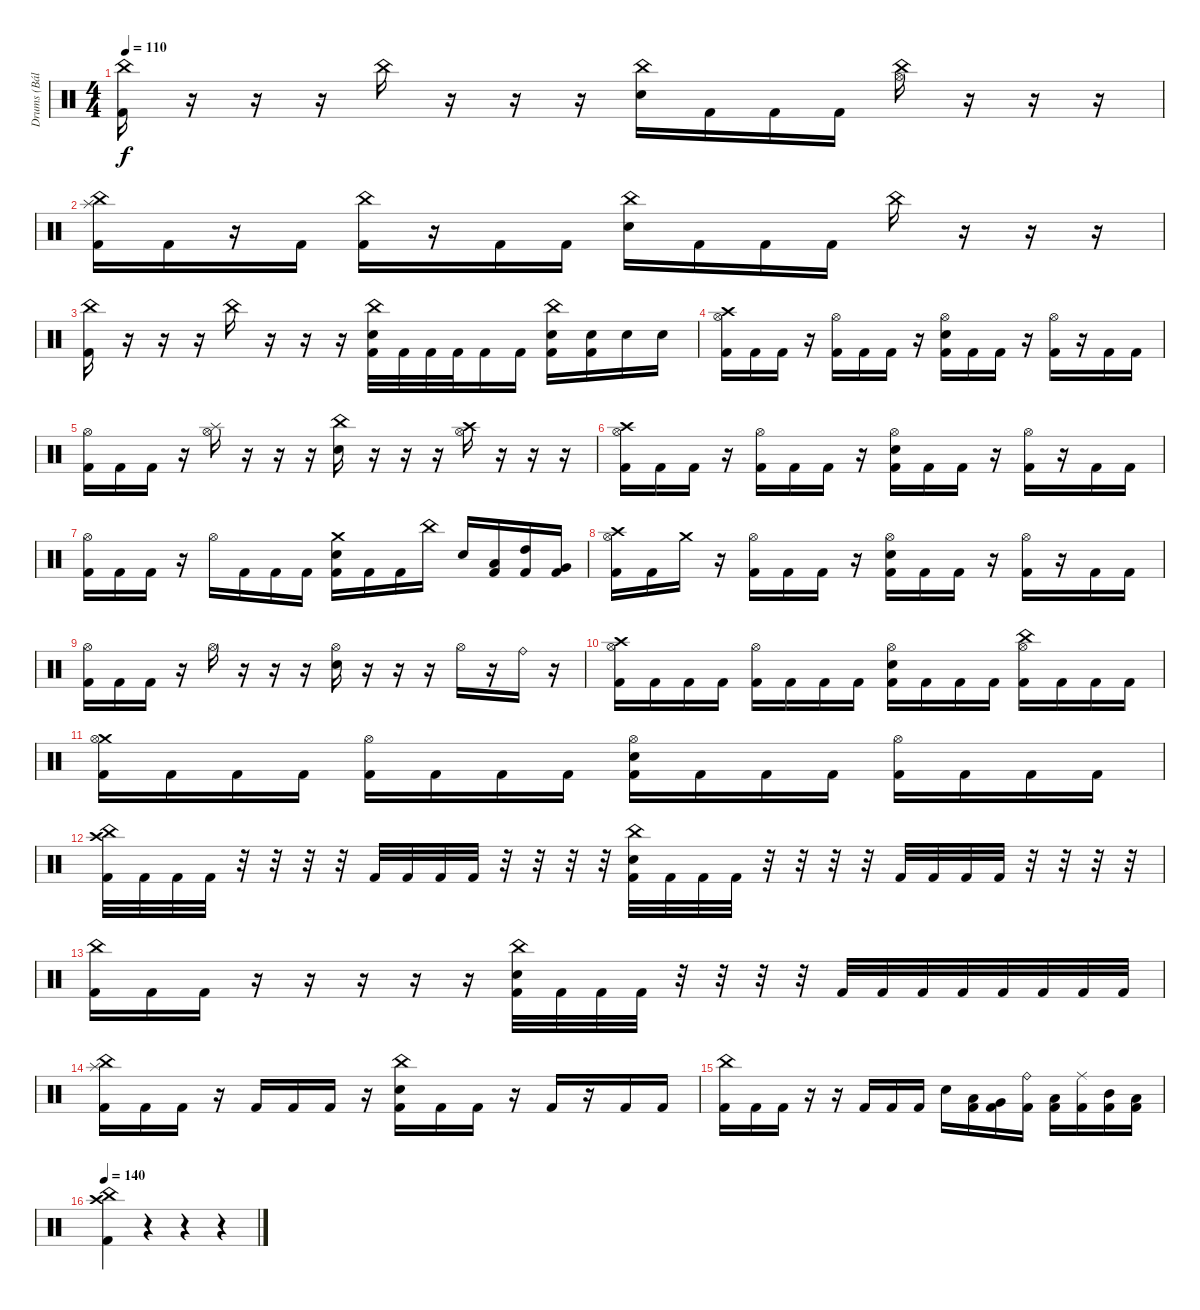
\track ("Drums (Bálint)" "Drums (Bál") {instrument percussion}
\staff {score}
\articulation defaults
\ts (4 4)
\tempo 110
\clef neutral
\ks c
("China (hit)" "Kick (hit) 2").16{dy f} r.16 r.16 r.16 "China (hit)".16 r.16 r.16 r.16 ("China (hit)" "Electric Snare (hit)").16 "Kick (hit) 2".16 "Kick (hit) 2".16 "Kick (hit) 2".16 ("Hi-Hat (open)" "China (hit)").16 r.16 r.16 r.16 |
("Splash (hit)" "China (hit)" "Kick (hit) 2").16 "Kick (hit) 2".16 r.16 "Kick (hit) 2".16 ("China (hit)" "Kick (hit) 2").16 r.16 "Kick (hit) 2".16 "Kick (hit) 2".16 ("China (hit)" "Snare (hit) 2").16 "Kick (hit) 2".16 "Kick (hit) 2".16 "Kick (hit) 2".16 "China (hit)".16 r.16 r.16 r.16 |
("China (hit)" "Kick (hit) 2").16 r.16 r.16 r.16 "China (hit)".16 r.16 r.16 r.16 ("China (hit)" "Electric Snare (hit)" "Kick (hit) 2").32 "Kick (hit) 2".32 "Kick (hit) 2".32 "Kick (hit) 2".32 "Kick (hit) 2".16 "Kick (hit) 2".16 ("China (hit)" "Electric Snare (hit)" "Kick (hit) 2").16 ("Electric Snare (hit)" "Kick (hit) 2").16 "Electric Snare (hit)".16 "Electric Snare (hit)".16 |
("Crash high (hit)" "Hi-Hat (open)" "Kick (hit) 2").16 "Kick (hit) 2".16 "Kick (hit) 2".16 r.16 ("Hi-Hat (open)" "Kick (hit) 2").16 "Kick (hit) 2".16 "Kick (hit) 2".16 r.16 ("Hi-Hat (open)" "Electric Snare (hit)" "Kick (hit) 2").16 "Kick (hit) 2".16 "Kick (hit) 2".16 r.16 ("Hi-Hat (open)" "Kick (hit) 2").16 r.16 "Kick (hit) 2".16 "Kick (hit) 2".16 |
("Hi-Hat (open)" "Kick (hit) 2").16 "Kick (hit) 2".16 "Kick (hit) 2".16 r.16 ("Splash (hit)" "Hi-Hat (open)").16 r.16 r.16 r.16 ("China (hit)" "Electric Snare (hit)").16 r.16 r.16 r.16 ("Crash high (hit)" "Hi-Hat (open)").16 r.16 r.16 r.16 |
("Crash high (hit)" "Hi-Hat (open)" "Kick (hit) 2").16 "Kick (hit) 2".16 "Kick (hit) 2".16 r.16 ("Hi-Hat (open)" "Kick (hit) 2").16 "Kick (hit) 2".16 "Kick (hit) 2".16 r.16 ("Hi-Hat (open)" "Electric Snare (hit)" "Kick (hit) 2").16 "Kick (hit) 2".16 "Kick (hit) 2".16 r.16 ("Hi-Hat (open)" "Kick (hit) 2").16 r.16 "Kick (hit) 2".16 "Kick (hit) 2".16 |
("Hi-Hat (open)" "Kick (hit) 2").16 "Kick (hit) 2".16 "Kick (hit) 2".16 r.16 "Hi-Hat (open)".16 "Kick (hit) 2".16 "Kick (hit) 2".16 "Kick (hit) 2".16 ("Crash medium (hit)" "Electric Snare (hit)" "Kick (hit) 2").16 "Kick (hit) 2".16 "Kick (hit) 2".16 "China (hit)".16 "Electric Snare (hit)".16 ("Low Floor Tom (hit)" "Kick (hit) 2").16 ("High Tom (hit)" "Kick (hit) 2").16 ("Very Low Tom (hit)" "Kick (hit) 2").16 |
("Crash high (hit)" "Hi-Hat (open)" "Kick (hit) 2").16 "Kick (hit) 2".16 "Crash medium (hit)".16 r.16 ("Hi-Hat (open)" "Kick (hit) 2").16 "Kick (hit) 2".16 "Kick (hit) 2".16 r.16 ("Hi-Hat (open)" "Electric Snare (hit)" "Kick (hit) 2").16 "Kick (hit) 2".16 "Kick (hit) 2".16 r.16 ("Hi-Hat (open)" "Kick (hit) 2").16 r.16 "Kick (hit) 2".16 "Kick (hit) 2".16 |
("Hi-Hat (open)" "Kick (hit) 2").16 "Kick (hit) 2".16 "Kick (hit) 2".16 r.16 "Hi-Hat (open)".16 r.16 r.16 r.16 ("Hi-Hat (open)" "Electric Snare (hit)").16 r.16 r.16 r.16 "Hi-Hat (open)".16 r.16 "Ride (bell)".16 r.16 |
("Crash high (hit)" "Hi-Hat (open)" "Kick (hit) 2").16 "Kick (hit) 2".16 "Kick (hit) 2".16 "Kick (hit) 2".16 ("Hi-Hat (open)" "Kick (hit) 2").16 "Kick (hit) 2".16 "Kick (hit) 2".16 "Kick (hit) 2".16 ("Hi-Hat (open)" "Electric Snare (hit)" "Kick (hit) 2").16 "Kick (hit) 2".16 "Kick (hit) 2".16 "Kick (hit) 2".16 ("China (hit)" "Hi-Hat (open)" "Kick (hit) 2").16 "Kick (hit) 2".16 "Kick (hit) 2".16 "Kick (hit) 2".16 |
("Crash medium (hit)" "Hi-Hat (open)" "Kick (hit) 2").16 "Kick (hit) 2".16 "Kick (hit) 2".16 "Kick (hit) 2".16 ("Hi-Hat (open)" "Kick (hit) 2").16 "Kick (hit) 2".16 "Kick (hit) 2".16 "Kick (hit) 2".16 ("Hi-Hat (open)" "Electric Snare (hit)" "Kick (hit) 2").16 "Kick (hit) 2".16 "Kick (hit) 2".16 "Kick (hit) 2".16 ("Hi-Hat (open)" "Kick (hit) 2").16 "Kick (hit) 2".16 "Kick (hit) 2".16 "Kick (hit) 2".16 |
("Crash high (hit)" "China (hit)" "Kick (hit) 2").32 "Kick (hit) 2".32 "Kick (hit) 2".32 "Kick (hit) 2".32 r.32 r.32 r.32 r.32 "Kick (hit) 2".32 "Kick (hit) 2".32 "Kick (hit) 2".32 "Kick (hit) 2".32 r.32 r.32 r.32 r.32 ("China (hit)" "Electric Snare (hit)" "Kick (hit) 2").32 "Kick (hit) 2".32 "Kick (hit) 2".32 "Kick (hit) 2".32 r.32 r.32 r.32 r.32 "Kick (hit) 2".32 "Kick (hit) 2".32 "Kick (hit) 2".32 "Kick (hit) 2".32 r.32 r.32 r.32 r.32 |
("China (hit)" "Kick (hit) 2").16 "Kick (hit) 2".16 "Kick (hit) 2".16 r.16 r.16 r.16 r.16 r.16 ("China (hit)" "Electric Snare (hit)" "Kick (hit) 2").32 "Kick (hit) 2".32 "Kick (hit) 2".32 "Kick (hit) 2".32 r.32 r.32 r.32 r.32 "Kick (hit) 2".32 "Kick (hit) 2".32 "Kick (hit) 2".32 "Kick (hit) 2".32 "Kick (hit) 2".32 "Kick (hit) 2".32 "Kick (hit) 2".32 "Kick (hit) 2".32 |
("Splash (hit)" "China (hit)" "Kick (hit) 2").16 "Kick (hit) 2".16 "Kick (hit) 2".16 r.16 "Kick (hit) 2".16 "Kick (hit) 2".16 "Kick (hit) 2".16 r.16 ("China (hit)" "Electric Snare (hit)" "Kick (hit) 2").16 "Kick (hit) 2".16 "Kick (hit) 2".16 r.16 "Kick (hit) 2".16 r.16 "Kick (hit) 2".16 "Kick (hit) 2".16 |
("China (hit)" "Kick (hit) 2").16 "Kick (hit) 2".16 "Kick (hit) 2".16 r.16 r.16 "Kick (hit) 2".16 "Kick (hit) 2".16 "Kick (hit) 2".16 "Electric Snare (hit)".16 ("Low Tom (hit)" "Kick (hit) 2").16 ("Very Low Tom (hit)" "Kick (hit) 2").16 ("Ride (bell)" "Kick (hit) 2").16 ("Low Tom (hit)" "Kick (hit) 2").16 ("Ride (middle)" "Kick (hit) 2").16 ("Mid Tom (hit)" "Kick (hit) 2").16 ("Low Floor Tom (hit)" "Kick (hit) 2").16 |
\tempo 140
("China (hit)" "Crash high (hit)" "Kick (hit) 2").4 r.4 r.4 r.4
